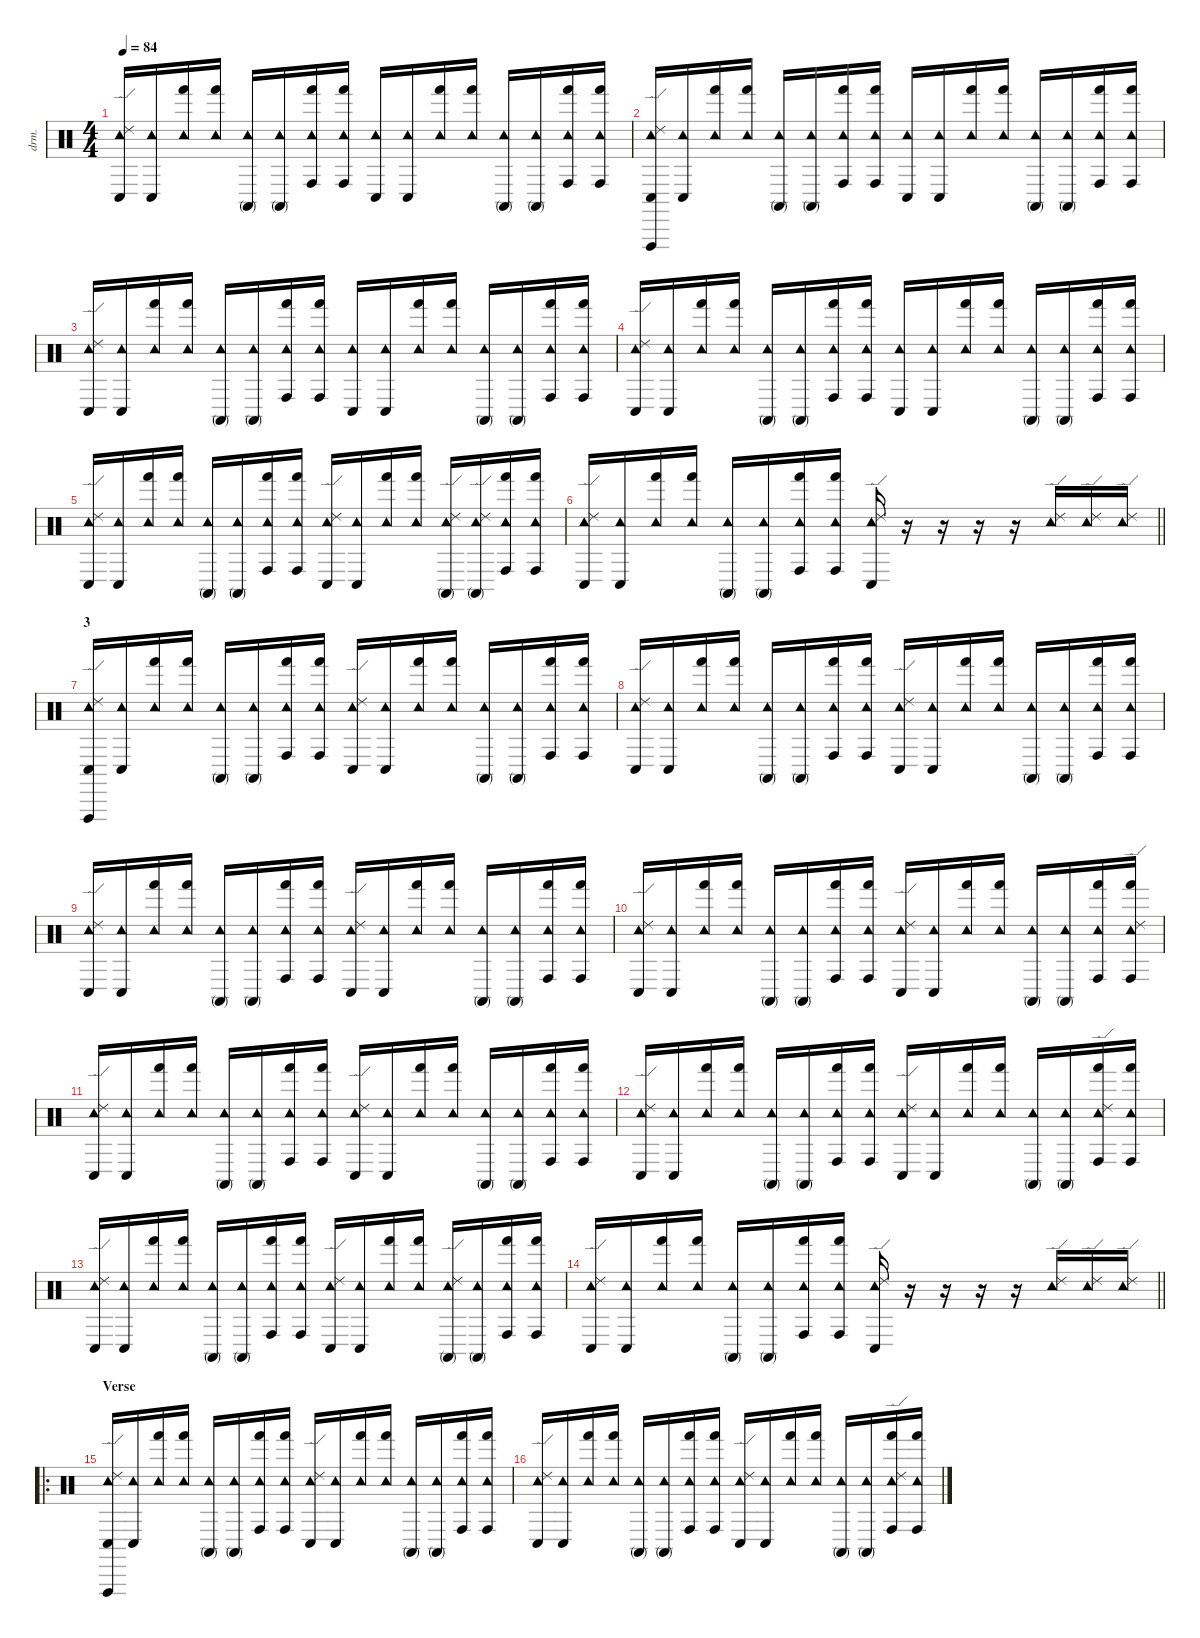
\defaultSystemsLayout 4
\hideDynamics
\bracketExtendMode nobrackets
\otherSystemsTrackNameOrientation horizontal
\track ("Conga + Tambourine" "drm.") {instrument percussion}
\staff {score}
\articulation defaults
\ts (4 4)
\tempo 84
\clef neutral
\ks c
("Conga low (hit)" "Tambourine (hit)" "Ride (edge) 2").16{dy f beam Up} ("Conga low (hit)" "Tambourine (hit)").16{beam Up} ("Hand (hit)" "Tambourine (hit)").16{beam Up} ("Hand (hit)" "Tambourine (hit)").16{beam Up} ("Conga high (mute)" "Tambourine (hit)").16{beam Up} ("Conga high (mute)" "Tambourine (hit)").16{beam Up} ("Conga high (hit)" "Hand (hit)" "Tambourine (hit)").16{beam Up} ("Conga high (hit)" "Hand (hit)" "Tambourine (hit)").16{beam Up} ("Conga low (hit)" "Tambourine (hit)").16{beam Up} ("Conga low (hit)" "Tambourine (hit)").16{beam Up} ("Hand (hit)" "Tambourine (hit)").16{beam Up} ("Hand (hit)" "Tambourine (hit)").16{beam Up} ("Conga high (mute)" "Tambourine (hit)").16{beam Up} ("Conga high (mute)" "Tambourine (hit)").16{beam Up} ("Conga high (hit)" "Hand (hit)" "Tambourine (hit)").16{beam Up} ("Conga high (hit)" "Hand (hit)" "Tambourine (hit)").16{beam Up} |
("Conga low (hit)" "Vibraslap (hit)" "Tambourine (hit)" "Ride (edge) 2").16{beam Up} ("Conga low (hit)" "Tambourine (hit)").16{beam Up} ("Hand (hit)" "Tambourine (hit)").16{beam Up} ("Hand (hit)" "Tambourine (hit)").16{beam Up} ("Conga high (mute)" "Tambourine (hit)").16{beam Up} ("Conga high (mute)" "Tambourine (hit)").16{beam Up} ("Conga high (hit)" "Hand (hit)" "Tambourine (hit)").16{beam Up} ("Conga high (hit)" "Hand (hit)" "Tambourine (hit)").16{beam Up} ("Conga low (hit)" "Tambourine (hit)").16{beam Up} ("Conga low (hit)" "Tambourine (hit)").16{beam Up} ("Hand (hit)" "Tambourine (hit)").16{beam Up} ("Hand (hit)" "Tambourine (hit)").16{beam Up} ("Conga high (mute)" "Tambourine (hit)").16{beam Up} ("Conga high (mute)" "Tambourine (hit)").16{beam Up} ("Conga high (hit)" "Hand (hit)" "Tambourine (hit)").16{beam Up} ("Conga high (hit)" "Hand (hit)" "Tambourine (hit)").16{beam Up} |
("Conga low (hit)" "Tambourine (hit)" "Ride (edge) 2").16{beam Up} ("Conga low (hit)" "Tambourine (hit)").16{beam Up} ("Hand (hit)" "Tambourine (hit)").16{beam Up} ("Hand (hit)" "Tambourine (hit)").16{beam Up} ("Conga high (mute)" "Tambourine (hit)").16{beam Up} ("Conga high (mute)" "Tambourine (hit)").16{beam Up} ("Conga high (hit)" "Hand (hit)" "Tambourine (hit)").16{beam Up} ("Conga high (hit)" "Hand (hit)" "Tambourine (hit)").16{beam Up} ("Conga low (hit)" "Tambourine (hit)").16{beam Up} ("Conga low (hit)" "Tambourine (hit)").16{beam Up} ("Hand (hit)" "Tambourine (hit)").16{beam Up} ("Hand (hit)" "Tambourine (hit)").16{beam Up} ("Conga high (mute)" "Tambourine (hit)").16{beam Up} ("Conga high (mute)" "Tambourine (hit)").16{beam Up} ("Conga high (hit)" "Hand (hit)" "Tambourine (hit)").16{beam Up} ("Conga high (hit)" "Hand (hit)" "Tambourine (hit)").16{beam Up} |
("Conga low (hit)" "Tambourine (hit)" "Ride (edge) 2").16{beam Up} ("Conga low (hit)" "Tambourine (hit)").16{beam Up} ("Hand (hit)" "Tambourine (hit)").16{beam Up} ("Hand (hit)" "Tambourine (hit)").16{beam Up} ("Conga high (mute)" "Tambourine (hit)").16{beam Up} ("Conga high (mute)" "Tambourine (hit)").16{beam Up} ("Conga high (hit)" "Hand (hit)" "Tambourine (hit)").16{beam Up} ("Conga high (hit)" "Hand (hit)" "Tambourine (hit)").16{beam Up} ("Conga low (hit)" "Tambourine (hit)").16{beam Up} ("Conga low (hit)" "Tambourine (hit)").16{beam Up} ("Hand (hit)" "Tambourine (hit)").16{beam Up} ("Hand (hit)" "Tambourine (hit)").16{beam Up} ("Conga high (mute)" "Tambourine (hit)").16{beam Up} ("Conga high (mute)" "Tambourine (hit)").16{beam Up} ("Conga high (hit)" "Hand (hit)" "Tambourine (hit)").16{beam Up} ("Conga high (hit)" "Hand (hit)" "Tambourine (hit)").16{beam Up} |
("Conga low (hit)" "Tambourine (hit)" "Ride (edge) 2").16{beam Up} ("Conga low (hit)" "Tambourine (hit)").16{beam Up} ("Hand (hit)" "Tambourine (hit)").16{beam Up} ("Hand (hit)" "Tambourine (hit)").16{beam Up} ("Conga high (mute)" "Tambourine (hit)").16{beam Up} ("Conga high (mute)" "Tambourine (hit)").16{beam Up} ("Conga high (hit)" "Hand (hit)" "Tambourine (hit)").16{beam Up} ("Conga high (hit)" "Hand (hit)" "Tambourine (hit)").16{beam Up} ("Conga low (hit)" "Tambourine (hit)" "Ride (edge) 2").16{beam Up} ("Conga low (hit)" "Tambourine (hit)").16{beam Up} ("Hand (hit)" "Tambourine (hit)").16{beam Up} ("Hand (hit)" "Tambourine (hit)").16{beam Up} ("Conga high (mute)" "Tambourine (hit)" "Ride (edge) 2").16{beam Up} ("Conga high (mute)" "Tambourine (hit)" "Ride (edge) 2").16{beam Up} ("Conga high (hit)" "Hand (hit)" "Tambourine (hit)").16{beam Up} ("Conga high (hit)" "Hand (hit)" "Tambourine (hit)").16{beam Up} |
\barLineRight lightlight
("Conga low (hit)" "Tambourine (hit)" "Ride (edge) 2").16{beam Up} ("Conga low (hit)" "Tambourine (hit)").16{beam Up} ("Hand (hit)" "Tambourine (hit)").16{beam Up} ("Hand (hit)" "Tambourine (hit)").16{beam Up} ("Conga high (mute)" "Tambourine (hit)").16{beam Up} ("Conga high (mute)" "Tambourine (hit)").16{beam Up} ("Conga high (hit)" "Hand (hit)" "Tambourine (hit)").16{beam Up} ("Conga high (hit)" "Hand (hit)" "Tambourine (hit)").16{beam Up} ("Conga low (hit)" "Tambourine (hit)" "Ride (edge) 2").16{beam Up} r.16{beam Up} r.16{beam Up} r.16{beam Up} r.16{beam Up} ("Tambourine (hit)" "Ride (edge) 2").16{dy mp beam Down} ("Tambourine (hit)" "Ride (edge) 2").16{dy mf beam Down} ("Tambourine (hit)" "Ride (edge) 2").16{dy f beam Down} |
\section ("" "3")
("Conga low (hit)" "Vibraslap (hit)" "Tambourine (hit)" "Ride (edge) 2").16{beam Up} ("Conga low (hit)" "Tambourine (hit)").16{beam Up} ("Hand (hit)" "Tambourine (hit)").16{beam Up} ("Hand (hit)" "Tambourine (hit)").16{beam Up} ("Conga high (mute)" "Tambourine (hit)").16{beam Up} ("Conga high (mute)" "Tambourine (hit)").16{beam Up} ("Conga high (hit)" "Hand (hit)" "Tambourine (hit)").16{beam Up} ("Conga high (hit)" "Hand (hit)" "Tambourine (hit)").16{beam Up} ("Conga low (hit)" "Tambourine (hit)" "Ride (edge) 2").16{beam Up} ("Conga low (hit)" "Tambourine (hit)").16{beam Up} ("Hand (hit)" "Tambourine (hit)").16{beam Up} ("Hand (hit)" "Tambourine (hit)").16{beam Up} ("Conga high (mute)" "Tambourine (hit)").16{beam Up} ("Conga high (mute)" "Tambourine (hit)").16{beam Up} ("Conga high (hit)" "Hand (hit)" "Tambourine (hit)").16{beam Up} ("Conga high (hit)" "Hand (hit)" "Tambourine (hit)").16{beam Up} |
("Conga low (hit)" "Tambourine (hit)" "Ride (edge) 2").16{beam Up} ("Conga low (hit)" "Tambourine (hit)").16{beam Up} ("Hand (hit)" "Tambourine (hit)").16{beam Up} ("Hand (hit)" "Tambourine (hit)").16{beam Up} ("Conga high (mute)" "Tambourine (hit)").16{beam Up} ("Conga high (mute)" "Tambourine (hit)").16{beam Up} ("Conga high (hit)" "Hand (hit)" "Tambourine (hit)").16{beam Up} ("Conga high (hit)" "Hand (hit)" "Tambourine (hit)").16{beam Up} ("Conga low (hit)" "Tambourine (hit)" "Ride (edge) 2").16{beam Up} ("Conga low (hit)" "Tambourine (hit)").16{beam Up} ("Hand (hit)" "Tambourine (hit)").16{beam Up} ("Hand (hit)" "Tambourine (hit)").16{beam Up} ("Conga high (mute)" "Tambourine (hit)").16{beam Up} ("Conga high (mute)" "Tambourine (hit)").16{beam Up} ("Conga high (hit)" "Hand (hit)" "Tambourine (hit)").16{beam Up} ("Conga high (hit)" "Hand (hit)" "Tambourine (hit)").16{beam Up} |
("Conga low (hit)" "Tambourine (hit)" "Ride (edge) 2").16{beam Up} ("Conga low (hit)" "Tambourine (hit)").16{beam Up} ("Hand (hit)" "Tambourine (hit)").16{beam Up} ("Hand (hit)" "Tambourine (hit)").16{beam Up} ("Conga high (mute)" "Tambourine (hit)").16{beam Up} ("Conga high (mute)" "Tambourine (hit)").16{beam Up} ("Conga high (hit)" "Hand (hit)" "Tambourine (hit)").16{beam Up} ("Conga high (hit)" "Hand (hit)" "Tambourine (hit)").16{beam Up} ("Conga low (hit)" "Tambourine (hit)" "Ride (edge) 2").16{beam Up} ("Conga low (hit)" "Tambourine (hit)").16{beam Up} ("Hand (hit)" "Tambourine (hit)").16{beam Up} ("Hand (hit)" "Tambourine (hit)").16{beam Up} ("Conga high (mute)" "Tambourine (hit)").16{beam Up} ("Conga high (mute)" "Tambourine (hit)").16{beam Up} ("Conga high (hit)" "Hand (hit)" "Tambourine (hit)").16{beam Up} ("Conga high (hit)" "Hand (hit)" "Tambourine (hit)").16{beam Up} |
("Conga low (hit)" "Tambourine (hit)" "Ride (edge) 2").16{beam Up} ("Conga low (hit)" "Tambourine (hit)").16{beam Up} ("Hand (hit)" "Tambourine (hit)").16{beam Up} ("Hand (hit)" "Tambourine (hit)").16{beam Up} ("Conga high (mute)" "Tambourine (hit)").16{beam Up} ("Conga high (mute)" "Tambourine (hit)").16{beam Up} ("Conga high (hit)" "Hand (hit)" "Tambourine (hit)").16{beam Up} ("Conga high (hit)" "Hand (hit)" "Tambourine (hit)").16{beam Up} ("Conga low (hit)" "Tambourine (hit)" "Ride (edge) 2").16{beam Up} ("Conga low (hit)" "Tambourine (hit)").16{beam Up} ("Hand (hit)" "Tambourine (hit)").16{beam Up} ("Hand (hit)" "Tambourine (hit)").16{beam Up} ("Conga high (mute)" "Tambourine (hit)").16{beam Up} ("Conga high (mute)" "Tambourine (hit)").16{beam Up} ("Conga high (hit)" "Hand (hit)" "Tambourine (hit)").16{beam Up} ("Conga high (hit)" "Hand (hit)" "Tambourine (hit)" "Ride (edge) 2").16{beam Up} |
("Conga low (hit)" "Tambourine (hit)" "Ride (edge) 2").16{beam Up} ("Conga low (hit)" "Tambourine (hit)").16{beam Up} ("Hand (hit)" "Tambourine (hit)").16{beam Up} ("Hand (hit)" "Tambourine (hit)").16{beam Up} ("Conga high (mute)" "Tambourine (hit)").16{beam Up} ("Conga high (mute)" "Tambourine (hit)").16{beam Up} ("Conga high (hit)" "Hand (hit)" "Tambourine (hit)").16{beam Up} ("Conga high (hit)" "Hand (hit)" "Tambourine (hit)").16{beam Up} ("Conga low (hit)" "Tambourine (hit)" "Ride (edge) 2").16{beam Up} ("Conga low (hit)" "Tambourine (hit)").16{beam Up} ("Hand (hit)" "Tambourine (hit)").16{beam Up} ("Hand (hit)" "Tambourine (hit)").16{beam Up} ("Conga high (mute)" "Tambourine (hit)").16{beam Up} ("Conga high (mute)" "Tambourine (hit)").16{beam Up} ("Conga high (hit)" "Hand (hit)" "Tambourine (hit)").16{beam Up} ("Conga high (hit)" "Hand (hit)" "Tambourine (hit)").16{beam Up} |
("Conga low (hit)" "Tambourine (hit)" "Ride (edge) 2").16{beam Up} ("Conga low (hit)" "Tambourine (hit)").16{beam Up} ("Hand (hit)" "Tambourine (hit)").16{beam Up} ("Hand (hit)" "Tambourine (hit)").16{beam Up} ("Conga high (mute)" "Tambourine (hit)").16{beam Up} ("Conga high (mute)" "Tambourine (hit)").16{beam Up} ("Conga high (hit)" "Hand (hit)" "Tambourine (hit)").16{beam Up} ("Conga high (hit)" "Hand (hit)" "Tambourine (hit)").16{beam Up} ("Conga low (hit)" "Tambourine (hit)" "Ride (edge) 2").16{beam Up} ("Conga low (hit)" "Tambourine (hit)").16{beam Up} ("Hand (hit)" "Tambourine (hit)").16{beam Up} ("Hand (hit)" "Tambourine (hit)").16{beam Up} ("Conga high (mute)" "Tambourine (hit)").16{beam Up} ("Conga high (mute)" "Tambourine (hit)").16{beam Up} ("Conga high (hit)" "Hand (hit)" "Tambourine (hit)" "Ride (edge) 2").16{beam Up} ("Conga high (hit)" "Hand (hit)" "Tambourine (hit)").16{beam Up} |
("Conga low (hit)" "Tambourine (hit)" "Ride (edge) 2").16{beam Up} ("Conga low (hit)" "Tambourine (hit)").16{beam Up} ("Hand (hit)" "Tambourine (hit)").16{beam Up} ("Hand (hit)" "Tambourine (hit)").16{beam Up} ("Conga high (mute)" "Tambourine (hit)").16{beam Up} ("Conga high (mute)" "Tambourine (hit)").16{beam Up} ("Conga high (hit)" "Hand (hit)" "Tambourine (hit)").16{beam Up} ("Conga high (hit)" "Hand (hit)" "Tambourine (hit)").16{beam Up} ("Conga low (hit)" "Tambourine (hit)" "Ride (edge) 2").16{beam Up} ("Conga low (hit)" "Tambourine (hit)").16{beam Up} ("Hand (hit)" "Tambourine (hit)").16{beam Up} ("Hand (hit)" "Tambourine (hit)").16{beam Up} ("Conga high (mute)" "Tambourine (hit)" "Ride (edge) 2").16{beam Up} ("Conga high (mute)" "Tambourine (hit)").16{beam Up} ("Conga high (hit)" "Hand (hit)" "Tambourine (hit)").16{beam Up} ("Conga high (hit)" "Hand (hit)" "Tambourine (hit)").16{beam Up} |
\barLineRight lightlight
("Conga low (hit)" "Tambourine (hit)" "Ride (edge) 2").16{beam Up} ("Conga low (hit)" "Tambourine (hit)").16{beam Up} ("Hand (hit)" "Tambourine (hit)").16{beam Up} ("Hand (hit)" "Tambourine (hit)").16{beam Up} ("Conga high (mute)" "Tambourine (hit)").16{beam Up} ("Conga high (mute)" "Tambourine (hit)").16{beam Up} ("Conga high (hit)" "Hand (hit)" "Tambourine (hit)").16{beam Up} ("Conga high (hit)" "Hand (hit)" "Tambourine (hit)").16{beam Up} ("Conga low (hit)" "Tambourine (hit)" "Ride (edge) 2").16{beam Up} r.16{beam Up} r.16{beam Up} r.16{beam Up} r.16{beam Up} ("Tambourine (hit)" "Ride (edge) 2").16{dy mp beam Down} ("Tambourine (hit)" "Ride (edge) 2").16{dy mf beam Down} ("Tambourine (hit)" "Ride (edge) 2").16{dy f beam Down} |
\ro
\section ("" "Verse")
("Conga low (hit)" "Vibraslap (hit)" "Tambourine (hit)" "Ride (edge) 2").16{beam Up} ("Conga low (hit)" "Tambourine (hit)").16{beam Up} ("Hand (hit)" "Tambourine (hit)").16{beam Up} ("Hand (hit)" "Tambourine (hit)").16{beam Up} ("Conga high (mute)" "Tambourine (hit)").16{beam Up} ("Conga high (mute)" "Tambourine (hit)").16{beam Up} ("Conga high (hit)" "Hand (hit)" "Tambourine (hit)").16{beam Up} ("Conga high (hit)" "Hand (hit)" "Tambourine (hit)").16{beam Up} ("Conga low (hit)" "Tambourine (hit)" "Ride (edge) 2").16{beam Up} ("Conga low (hit)" "Tambourine (hit)").16{beam Up} ("Hand (hit)" "Tambourine (hit)").16{beam Up} ("Hand (hit)" "Tambourine (hit)").16{beam Up} ("Conga high (mute)" "Tambourine (hit)").16{beam Up} ("Conga high (mute)" "Tambourine (hit)").16{beam Up} ("Conga high (hit)" "Hand (hit)" "Tambourine (hit)").16{beam Up} ("Conga high (hit)" "Hand (hit)" "Tambourine (hit)").16{beam Up} |
("Conga low (hit)" "Tambourine (hit)" "Ride (edge) 2").16{beam Up} ("Conga low (hit)" "Tambourine (hit)").16{beam Up} ("Hand (hit)" "Tambourine (hit)").16{beam Up} ("Hand (hit)" "Tambourine (hit)").16{beam Up} ("Conga high (mute)" "Tambourine (hit)").16{beam Up} ("Conga high (mute)" "Tambourine (hit)").16{beam Up} ("Conga high (hit)" "Hand (hit)" "Tambourine (hit)").16{beam Up} ("Conga high (hit)" "Hand (hit)" "Tambourine (hit)").16{beam Up} ("Conga low (hit)" "Tambourine (hit)" "Ride (edge) 2").16{beam Up} ("Conga low (hit)" "Tambourine (hit)").16{beam Up} ("Hand (hit)" "Tambourine (hit)").16{beam Up} ("Hand (hit)" "Tambourine (hit)").16{beam Up} ("Conga high (mute)" "Tambourine (hit)").16{beam Up} ("Conga high (mute)" "Tambourine (hit)").16{beam Up} ("Conga high (hit)" "Hand (hit)" "Tambourine (hit)" "Ride (edge) 2").16{beam Up} ("Conga high (hit)" "Hand (hit)" "Tambourine (hit)").16{beam Up}
